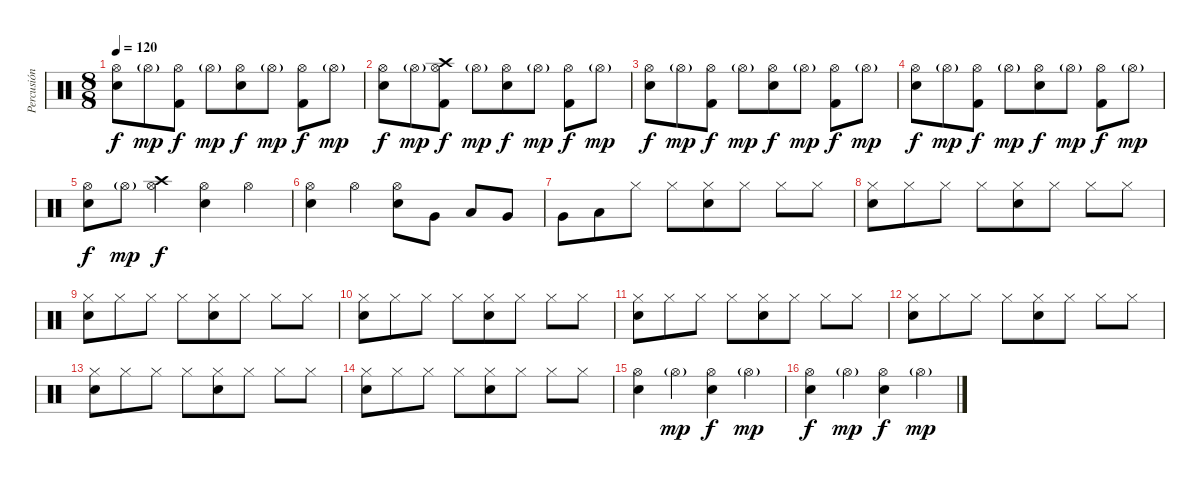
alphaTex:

\track ("Percusión" "Percusión") {instrument percussion}
\staff {score}
\articulation defaults
\ts (8 8)
\tempo 120
\clef neutral
\ks c
("Hi-Hat (open)" "Snare (hit) 2").8{dy f} "Hi-Hat (open)"{g}.8{dy mp} ("Hi-Hat (open)" "Kick (hit) 2").8{dy f} "Hi-Hat (open)"{g}.8{dy mp} ("Hi-Hat (open)" "Snare (hit) 2").8{dy f} "Hi-Hat (open)"{g}.8{dy mp} ("Hi-Hat (open)" "Kick (hit) 2").8{dy f} "Hi-Hat (open)"{g}.8{dy mp} |
("Hi-Hat (open)" "Snare (hit) 2").8{dy f} "Hi-Hat (open)"{g}.8{dy mp} ("Hi-Hat (open)" "Crash high (hit)" "Kick (hit) 2").8{dy f} "Hi-Hat (open)"{g}.8{dy mp} ("Hi-Hat (open)" "Snare (hit) 2").8{dy f} "Hi-Hat (open)"{g}.8{dy mp} ("Hi-Hat (open)" "Kick (hit) 2").8{dy f} "Hi-Hat (open)"{g}.8{dy mp} |
("Hi-Hat (open)" "Snare (hit) 2").8{dy f} "Hi-Hat (open)"{g}.8{dy mp} ("Hi-Hat (open)" "Kick (hit) 2").8{dy f} "Hi-Hat (open)"{g}.8{dy mp} ("Hi-Hat (open)" "Snare (hit) 2").8{dy f} "Hi-Hat (open)"{g}.8{dy mp} ("Hi-Hat (open)" "Kick (hit) 2").8{dy f} "Hi-Hat (open)"{g}.8{dy mp} |
("Hi-Hat (open)" "Snare (hit) 2").8{dy f} "Hi-Hat (open)"{g}.8{dy mp} ("Hi-Hat (open)" "Kick (hit) 2").8{dy f} "Hi-Hat (open)"{g}.8{dy mp} ("Hi-Hat (open)" "Snare (hit) 2").8{dy f} "Hi-Hat (open)"{g}.8{dy mp} ("Hi-Hat (open)" "Kick (hit) 2").8{dy f} "Hi-Hat (open)"{g}.8{dy mp} |
("Hi-Hat (open)" "Snare (hit) 2").8{dy f} "Hi-Hat (open)"{g}.8{dy mp} ("Hi-Hat (open)" "Crash high (hit)").4{dy f} ("Hi-Hat (open)" "Snare (hit) 2").4 "Hi-Hat (open)".4 |
("Hi-Hat (open)" "Snare (hit) 2").4 "Hi-Hat (open)".4 ("Hi-Hat (open)" "Snare (hit) 2").8 "Very Low Tom (hit)".8 "Low Tom (hit)".8 "Very Low Tom (hit)".8 |
"Very Low Tom (hit)".8 "Low Tom (hit)".8 "Hi-Hat (closed)".8 "Hi-Hat (closed)".8 ("Hi-Hat (closed)" "Snare (hit) 2").8 "Hi-Hat (closed)".8 "Hi-Hat (closed)".8 "Hi-Hat (closed)".8 |
("Hi-Hat (closed)" "Snare (hit) 2").8 "Hi-Hat (closed)".8 "Hi-Hat (closed)".8 "Hi-Hat (closed)".8 ("Hi-Hat (closed)" "Snare (hit) 2").8 "Hi-Hat (closed)".8 "Hi-Hat (closed)".8 "Hi-Hat (closed)".8 |
("Hi-Hat (closed)" "Snare (hit) 2").8 "Hi-Hat (closed)".8 "Hi-Hat (closed)".8 "Hi-Hat (closed)".8 ("Hi-Hat (closed)" "Snare (hit) 2").8 "Hi-Hat (closed)".8 "Hi-Hat (closed)".8 "Hi-Hat (closed)".8 |
("Hi-Hat (closed)" "Snare (hit) 2").8 "Hi-Hat (closed)".8 "Hi-Hat (closed)".8 "Hi-Hat (closed)".8 ("Hi-Hat (closed)" "Snare (hit) 2").8 "Hi-Hat (closed)".8 "Hi-Hat (closed)".8 "Hi-Hat (closed)".8 |
("Hi-Hat (closed)" "Snare (hit) 2").8 "Hi-Hat (closed)".8 "Hi-Hat (closed)".8 "Hi-Hat (closed)".8 ("Hi-Hat (closed)" "Snare (hit) 2").8 "Hi-Hat (closed)".8 "Hi-Hat (closed)".8 "Hi-Hat (closed)".8 |
("Hi-Hat (closed)" "Snare (hit) 2").8 "Hi-Hat (closed)".8 "Hi-Hat (closed)".8 "Hi-Hat (closed)".8 ("Hi-Hat (closed)" "Snare (hit) 2").8 "Hi-Hat (closed)".8 "Hi-Hat (closed)".8 "Hi-Hat (closed)".8 |
("Hi-Hat (closed)" "Snare (hit) 2").8 "Hi-Hat (closed)".8 "Hi-Hat (closed)".8 "Hi-Hat (closed)".8 ("Hi-Hat (closed)" "Snare (hit) 2").8 "Hi-Hat (closed)".8 "Hi-Hat (closed)".8 "Hi-Hat (closed)".8 |
("Hi-Hat (closed)" "Snare (hit) 2").8 "Hi-Hat (closed)".8 "Hi-Hat (closed)".8 "Hi-Hat (closed)".8 ("Hi-Hat (closed)" "Snare (hit) 2").8 "Hi-Hat (closed)".8 "Hi-Hat (closed)".8 "Hi-Hat (closed)".8 |
("Hi-Hat (open)" "Snare (hit) 2").4 "Hi-Hat (open)"{g}.4{dy mp} ("Hi-Hat (open)" "Snare (hit) 2").4{dy f} "Hi-Hat (open)"{g}.4{dy mp} |
("Hi-Hat (open)" "Snare (hit) 2").4{dy f} "Hi-Hat (open)"{g}.4{dy mp} ("Hi-Hat (open)" "Snare (hit) 2").4{dy f} "Hi-Hat (open)"{g}.4{dy mp}
